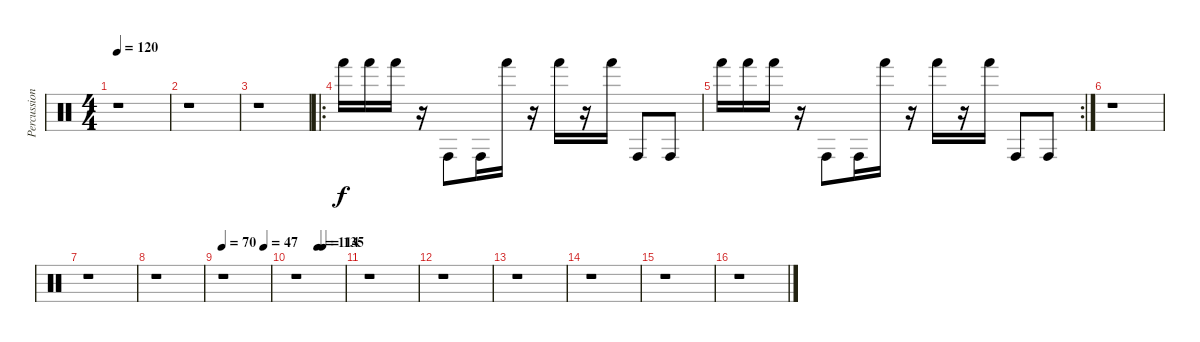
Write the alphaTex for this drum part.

\track ("Percussion" "Percussion") {instrument percussion}
\staff {score}
\articulation defaults
\ts (4 4)
\tempo 120
\clef neutral
\ks c
r.1{dy f} |
r.1 |
r.1 |
\ro "Hand (hit)".16 "Hand (hit)".16 "Hand (hit)".16
r.16 "Conga high (hit)".8 "Conga high (hit)".16 "Hand (hit)".16 r.16 "Hand (hit)".16 r.16 "Hand (hit)".16 "Conga high (hit)".8 "Conga high (hit)".8 |
\rc 2 "Hand (hit)".16 "Hand (hit)".16 "Hand (hit)".16
r.16 "Conga high (hit)".8 "Conga high (hit)".16 "Hand (hit)".16 r.16 "Hand (hit)".16 r.16 "Hand (hit)".16 "Conga high (hit)".8 "Conga high (hit)".8 |
r.1 |
r.1 |
r.1 |
\tempo 70
\tempo (47 0.875)
r.1 |
\tempo (114 0.4583333333333333)
\tempo (135 0.5625)
r.1 |
r.1 |
r.1 |
r.1 |
r.1 |
r.1 |
r.1
